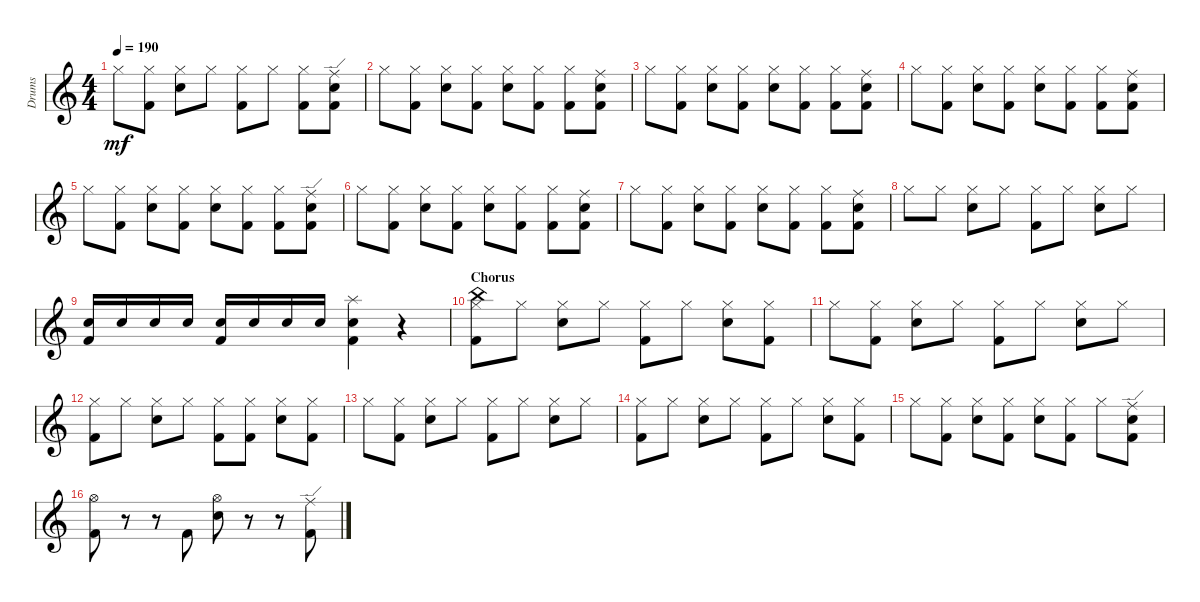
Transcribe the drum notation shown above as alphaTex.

\defaultSystemsLayout 4
\bracketExtendMode groupsimilarinstruments
\otherSystemsTrackNameOrientation horizontal
\track ("Prakarsh" "Drums") {instrument percussion}
\staff {score}
\articulation defaults
\ts (4 4)
\tempo 190
\clef g2
\ks c "Hi-Hat (closed)".8{dy mf beam Down}
("Hi-Hat (closed)" "Kick (hit) 2").8{beam Down} ("Hi-Hat (closed)" "Snare (hit) 2").8{beam Down} "Hi-Hat (closed)".8{beam Down} ("Hi-Hat (closed)" "Kick (hit) 2").8{beam Down} "Hi-Hat (closed)".8{beam Down} ("Hi-Hat (closed)" "Kick (hit) 2").8{beam Down} ("Kick (hit) 2" "Snare (hit) 2" "Ride (edge)").8{beam Down} |
"Hi-Hat (closed)".8{beam Down} ("Hi-Hat (closed)" "Kick (hit) 2").8{beam Down} ("Hi-Hat (closed)" "Snare (hit) 2").8{beam Down} ("Hi-Hat (closed)" "Kick (hit) 2").8{beam Down} ("Hi-Hat (closed)" "Snare (hit) 2").8{beam Down} ("Hi-Hat (closed)" "Kick (hit) 2").8{beam Down} ("Hi-Hat (closed)" "Kick (hit) 2").8{beam Down} ("Kick (hit) 2" "Snare (hit) 2" "Ride (middle)").8{beam Down} |
"Hi-Hat (closed)".8{beam Down} ("Hi-Hat (closed)" "Kick (hit) 2").8{beam Down} ("Hi-Hat (closed)" "Snare (hit) 2").8{beam Down} ("Hi-Hat (closed)" "Kick (hit) 2").8{beam Down} ("Hi-Hat (closed)" "Snare (hit) 2").8{beam Down} ("Hi-Hat (closed)" "Kick (hit) 2").8{beam Down} ("Hi-Hat (closed)" "Kick (hit) 2").8{beam Down} ("Kick (hit) 2" "Snare (hit) 2" "Ride (middle)").8{beam Down} |
"Hi-Hat (closed)".8{beam Down} ("Hi-Hat (closed)" "Kick (hit) 2").8{beam Down} ("Hi-Hat (closed)" "Snare (hit) 2").8{beam Down} ("Hi-Hat (closed)" "Kick (hit) 2").8{beam Down} ("Hi-Hat (closed)" "Snare (hit) 2").8{beam Down} ("Hi-Hat (closed)" "Kick (hit) 2").8{beam Down} ("Hi-Hat (closed)" "Kick (hit) 2").8{beam Down} ("Kick (hit) 2" "Snare (hit) 2" "Ride (middle)").8{beam Down} |
"Hi-Hat (closed)".8{beam Down} ("Hi-Hat (closed)" "Kick (hit) 2").8{beam Down} ("Hi-Hat (closed)" "Snare (hit) 2").8{beam Down} ("Hi-Hat (closed)" "Kick (hit) 2").8{beam Down} ("Hi-Hat (closed)" "Snare (hit) 2").8{beam Down} ("Hi-Hat (closed)" "Kick (hit) 2").8{beam Down} ("Hi-Hat (closed)" "Kick (hit) 2").8{beam Down} ("Kick (hit) 2" "Snare (hit) 2" "Ride (edge)").8{beam Down} |
"Hi-Hat (closed)".8{beam Down} ("Hi-Hat (closed)" "Kick (hit) 2").8{beam Down} ("Hi-Hat (closed)" "Snare (hit) 2").8{beam Down} ("Hi-Hat (closed)" "Kick (hit) 2").8{beam Down} ("Hi-Hat (closed)" "Snare (hit) 2").8{beam Down} ("Hi-Hat (closed)" "Kick (hit) 2").8{beam Down} ("Hi-Hat (closed)" "Kick (hit) 2").8{beam Down} ("Kick (hit) 2" "Snare (hit) 2" "Ride (middle)").8{beam Down} |
"Hi-Hat (closed)".8{beam Down} ("Hi-Hat (closed)" "Kick (hit) 2").8{beam Down} ("Hi-Hat (closed)" "Snare (hit) 2").8{beam Down} ("Hi-Hat (closed)" "Kick (hit) 2").8{beam Down} ("Hi-Hat (closed)" "Snare (hit) 2").8{beam Down} ("Hi-Hat (closed)" "Kick (hit) 2").8{beam Down} ("Hi-Hat (closed)" "Kick (hit) 2").8{beam Down} ("Kick (hit) 2" "Snare (hit) 2" "Ride (middle)").8{beam Down} |
"Hi-Hat (closed)".8{beam Down} "Hi-Hat (closed)".8{beam Down} ("Hi-Hat (closed)" "Snare (hit) 2").8{beam Down} "Hi-Hat (closed)".8{beam Down} ("Hi-Hat (closed)" "Kick (hit) 2").8{beam Down} "Hi-Hat (closed)".8{beam Down} ("Hi-Hat (closed)" "Snare (hit) 2").8{beam Down} "Hi-Hat (closed)".8{beam Down} |
("Snare (hit) 2" "Kick (hit) 2").16{beam Up} "Snare (hit) 2".16{beam Up} "Snare (hit) 2".16{beam Up} "Snare (hit) 2".16{beam Up} ("Snare (hit) 2" "Kick (hit) 2").16{beam Up} "Snare (hit) 2".16{beam Up} "Snare (hit) 2".16{beam Up} "Snare (hit) 2".16{beam Up} ("Snare (hit) 2" "Splash (hit)" "Kick (hit) 2").4{beam Down} r.4{beam Down} |
\section ("" "Chorus")
("Hi-Hat (closed)" "Kick (hit) 2" "China (hit)").8{beam Down} "Hi-Hat (closed)".8{beam Down} ("Hi-Hat (closed)" "Snare (hit) 2").8{beam Down} "Hi-Hat (closed)".8{beam Down} ("Hi-Hat (closed)" "Kick (hit) 2").8{beam Down} "Hi-Hat (closed)".8{beam Down} ("Hi-Hat (closed)" "Snare (hit) 2").8{beam Down} ("Hi-Hat (closed)" "Kick (hit) 2").8{beam Down} |
"Hi-Hat (closed)".8{beam Down} ("Hi-Hat (closed)" "Kick (hit) 2").8{beam Down} ("Hi-Hat (closed)" "Snare (hit) 2").8{beam Down} "Hi-Hat (closed)".8{beam Down} ("Hi-Hat (closed)" "Kick (hit) 2").8{beam Down} "Hi-Hat (closed)".8{beam Down} ("Hi-Hat (closed)" "Snare (hit) 2").8{beam Down} "Hi-Hat (closed)".8{beam Down} |
("Hi-Hat (closed)" "Kick (hit) 2").8{beam Down} "Hi-Hat (closed)".8{beam Down} ("Hi-Hat (closed)" "Snare (hit) 2").8{beam Down} "Hi-Hat (closed)".8{beam Down} ("Hi-Hat (closed)" "Kick (hit) 2").8{beam Down} ("Hi-Hat (closed)" "Kick (hit) 2").8{beam Down} ("Hi-Hat (closed)" "Snare (hit) 2").8{beam Down} ("Hi-Hat (closed)" "Kick (hit) 2").8{beam Down} |
"Hi-Hat (closed)".8{beam Down} ("Hi-Hat (closed)" "Kick (hit) 2").8{beam Down} ("Hi-Hat (closed)" "Snare (hit) 2").8{beam Down} "Hi-Hat (closed)".8{beam Down} ("Hi-Hat (closed)" "Kick (hit) 2").8{beam Down} "Hi-Hat (closed)".8{beam Down} ("Hi-Hat (closed)" "Snare (hit) 2").8{beam Down} "Hi-Hat (closed)".8{beam Down} |
("Hi-Hat (closed)" "Kick (hit) 2").8{beam Down} "Hi-Hat (closed)".8{beam Down} ("Hi-Hat (closed)" "Snare (hit) 2").8{beam Down} "Hi-Hat (closed)".8{beam Down} ("Hi-Hat (closed)" "Kick (hit) 2").8{beam Down} "Hi-Hat (closed)".8{beam Down} ("Hi-Hat (closed)" "Snare (hit) 2").8{beam Down} ("Hi-Hat (closed)" "Kick (hit) 2").8{beam Down} |
"Hi-Hat (closed)".8{beam Down} ("Hi-Hat (closed)" "Kick (hit) 2").8{beam Down} ("Hi-Hat (closed)" "Snare (hit) 2").8{beam Down} ("Hi-Hat (closed)" "Kick (hit) 2").8{beam Down} ("Hi-Hat (closed)" "Snare (hit) 2").8{beam Down} ("Hi-Hat (closed)" "Kick (hit) 2").8{beam Down} "Hi-Hat (closed)".8{beam Down} ("Kick (hit) 2" "Snare (hit) 2" "Ride (edge)").8{beam Down} |
("Hi-Hat (open)" "Kick (hit) 2").8{beam Down} r.8{beam Down} r.8{beam Down} "Kick (hit) 2".8{beam Up} ("Hi-Hat (open)" "Snare (hit) 2").8{beam Down} r.8{beam Down} r.8{beam Down} ("Kick (hit) 2" "Ride (edge)").8{beam Down}
